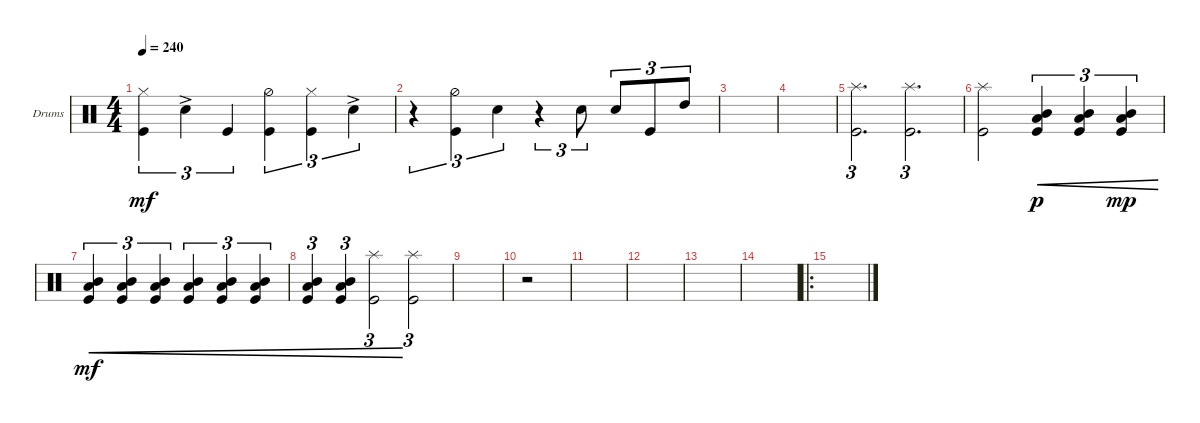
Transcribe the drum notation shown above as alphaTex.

\defaultSystemsLayout 4
\bracketExtendMode groupsimilarinstruments
\firstSystemTrackNameOrientation horizontal
\otherSystemsTrackNameOrientation horizontal
\track ("Drumkit" "Drums") {instrument percussion}
\staff {score}
\articulation defaults
\ts (4 4)
\tempo 240
\clef neutral
\ks c
("Kick (hit)" "Hi-Hat (closed)").4{tu (3 2) dy mf} "Snare (hit) 2"{ac}.4{tu (3 2)} "Kick (hit)".4{tu (3 2)} ("Kick (hit)" "Hi-Hat (half)").4{tu (3 2)} ("Kick (hit)" "Hi-Hat (closed)").4{tu (3 2)} "Snare (hit) 2"{ac}.4{tu (3 2)} |
r.4{tu (3 2)} ("Kick (hit)" "Hi-Hat (half)").4{tu (3 2)} "Snare (hit) 2".4{tu (3 2)} r.4{tu (3 2)} "Snare (hit) 2".8{tu (3 2)} "Snare (hit) 2".8{tu (3 2)} "Kick (hit)".8{tu (3 2)} "High Tom (hit)".8{tu (3 2)} |
|
|
("Splash (hit)" "Kick (hit)").2{d tu (3 2)} ("Splash (hit)" "Kick (hit)").2{d tu (3 2)} |
("Splash (hit)" "Kick (hit)").2 ("Kick (hit)" "Low Tom (hit)" "Mid Tom (hit)").4{tu (3 2) cre dy p} ("Kick (hit)" "Low Tom (hit)" "Mid Tom (hit)").4{tu (3 2) cre} ("Kick (hit)" "Low Tom (hit)" "Mid Tom (hit)").4{tu (3 2) cre dy mp} |
("Kick (hit)" "Low Tom (hit)" "Mid Tom (hit)").4{tu (3 2) cre dy mf} ("Kick (hit)" "Low Tom (hit)" "Mid Tom (hit)").4{tu (3 2) cre} ("Kick (hit)" "Low Tom (hit)" "Mid Tom (hit)").4{tu (3 2) cre} ("Kick (hit)" "Low Tom (hit)" "Mid Tom (hit)").4{tu (3 2) cre} ("Kick (hit)" "Low Tom (hit)" "Mid Tom (hit)").4{tu (3 2) cre} ("Kick (hit)" "Low Tom (hit)" "Mid Tom (hit)").4{tu (3 2) cre} |
("Kick (hit)" "Low Tom (hit)" "Mid Tom (hit)").4{tu (3 2) cre} ("Kick (hit)" "Low Tom (hit)" "Mid Tom (hit)").4{tu (3 2) cre} ("Kick (hit)" "Splash (hit)").2{tu (3 2) cre} ("Splash (hit)" "Kick (hit)").2{tu (3 2)} |
|
r.2 |
|
|
|
|
\ro
